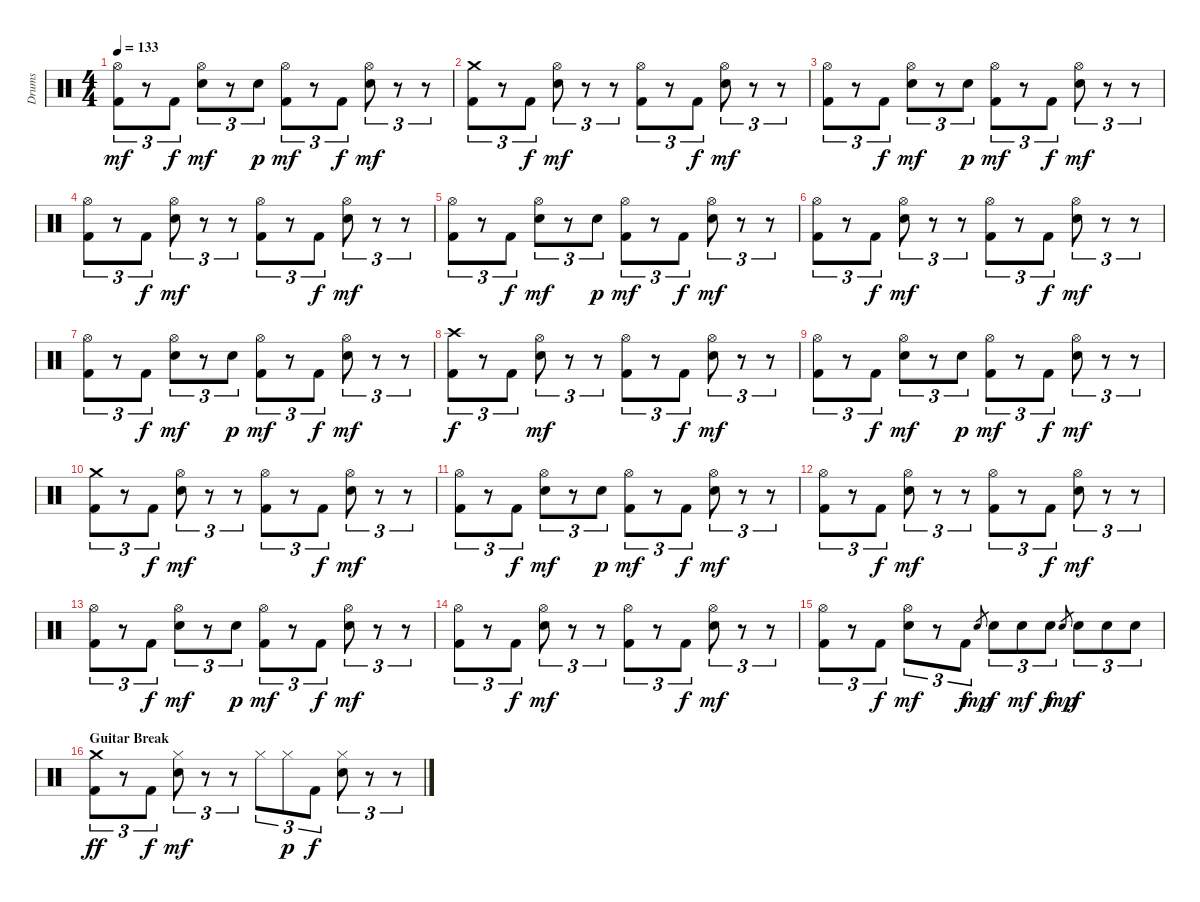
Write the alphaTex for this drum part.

\track ("Drums" "Drums") {instrument percussion}
\staff {score}
\articulation defaults
\ts (4 4)
\tempo 133
\clef neutral
\ks c
("Hi-Hat (open)" "Kick (hit) 2").8{tu (3 2) dy mf} r.8{tu (3 2)} "Kick (hit) 2".8{tu (3 2) dy f} ("Hi-Hat (open)" "Electric Snare (hit)").8{tu (3 2) dy mf} r.8{tu (3 2)} "Electric Snare (hit)".8{tu (3 2) dy p} ("Hi-Hat (open)" "Kick (hit) 2").8{tu (3 2) dy mf} r.8{tu (3 2)} "Kick (hit) 2".8{tu (3 2) dy f} ("Hi-Hat (open)" "Electric Snare (hit)").8{tu (3 2) dy mf} r.8{tu (3 2)} r.8{tu (3 2)} |
("Crash medium (hit)" "Kick (hit) 2").8{tu (3 2)} r.8{tu (3 2)} "Kick (hit) 2".8{tu (3 2) dy f} ("Hi-Hat (open)" "Electric Snare (hit)").8{tu (3 2) dy mf} r.8{tu (3 2)} r.8{tu (3 2)} ("Hi-Hat (open)" "Kick (hit) 2").8{tu (3 2)} r.8{tu (3 2)} "Kick (hit) 2".8{tu (3 2) dy f} ("Hi-Hat (open)" "Electric Snare (hit)").8{tu (3 2) dy mf} r.8{tu (3 2)} r.8{tu (3 2)} |
("Hi-Hat (open)" "Kick (hit) 2").8{tu (3 2)} r.8{tu (3 2)} "Kick (hit) 2".8{tu (3 2) dy f} ("Hi-Hat (open)" "Electric Snare (hit)").8{tu (3 2) dy mf} r.8{tu (3 2)} "Electric Snare (hit)".8{tu (3 2) dy p} ("Hi-Hat (open)" "Kick (hit) 2").8{tu (3 2) dy mf} r.8{tu (3 2)} "Kick (hit) 2".8{tu (3 2) dy f} ("Hi-Hat (open)" "Electric Snare (hit)").8{tu (3 2) dy mf} r.8{tu (3 2)} r.8{tu (3 2)} |
("Hi-Hat (open)" "Kick (hit) 2").8{tu (3 2)} r.8{tu (3 2)} "Kick (hit) 2".8{tu (3 2) dy f} ("Hi-Hat (open)" "Electric Snare (hit)").8{tu (3 2) dy mf} r.8{tu (3 2)} r.8{tu (3 2)} ("Hi-Hat (open)" "Kick (hit) 2").8{tu (3 2)} r.8{tu (3 2)} "Kick (hit) 2".8{tu (3 2) dy f} ("Hi-Hat (open)" "Electric Snare (hit)").8{tu (3 2) dy mf} r.8{tu (3 2)} r.8{tu (3 2)} |
("Hi-Hat (open)" "Kick (hit) 2").8{tu (3 2)} r.8{tu (3 2)} "Kick (hit) 2".8{tu (3 2) dy f} ("Hi-Hat (open)" "Electric Snare (hit)").8{tu (3 2) dy mf} r.8{tu (3 2)} "Electric Snare (hit)".8{tu (3 2) dy p} ("Hi-Hat (open)" "Kick (hit) 2").8{tu (3 2) dy mf} r.8{tu (3 2)} "Kick (hit) 2".8{tu (3 2) dy f} ("Hi-Hat (open)" "Electric Snare (hit)").8{tu (3 2) dy mf} r.8{tu (3 2)} r.8{tu (3 2)} |
("Hi-Hat (open)" "Kick (hit) 2").8{tu (3 2)} r.8{tu (3 2)} "Kick (hit) 2".8{tu (3 2) dy f} ("Hi-Hat (open)" "Electric Snare (hit)").8{tu (3 2) dy mf} r.8{tu (3 2)} r.8{tu (3 2)} ("Hi-Hat (open)" "Kick (hit) 2").8{tu (3 2)} r.8{tu (3 2)} "Kick (hit) 2".8{tu (3 2) dy f} ("Hi-Hat (open)" "Electric Snare (hit)").8{tu (3 2) dy mf} r.8{tu (3 2)} r.8{tu (3 2)} |
("Hi-Hat (open)" "Kick (hit) 2").8{tu (3 2)} r.8{tu (3 2)} "Kick (hit) 2".8{tu (3 2) dy f} ("Hi-Hat (open)" "Electric Snare (hit)").8{tu (3 2) dy mf} r.8{tu (3 2)} "Electric Snare (hit)".8{tu (3 2) dy p} ("Hi-Hat (open)" "Kick (hit) 2").8{tu (3 2) dy mf} r.8{tu (3 2)} "Kick (hit) 2".8{tu (3 2) dy f} ("Hi-Hat (open)" "Electric Snare (hit)").8{tu (3 2) dy mf} r.8{tu (3 2)} r.8{tu (3 2)} |
("Crash high (hit)" "Kick (hit) 2").8{tu (3 2) dy f} r.8{tu (3 2)} "Kick (hit) 2".8{tu (3 2)} ("Hi-Hat (open)" "Electric Snare (hit)").8{tu (3 2) dy mf} r.8{tu (3 2)} r.8{tu (3 2)} ("Hi-Hat (open)" "Kick (hit) 2").8{tu (3 2)} r.8{tu (3 2)} "Kick (hit) 2".8{tu (3 2) dy f} ("Hi-Hat (open)" "Electric Snare (hit)").8{tu (3 2) dy mf} r.8{tu (3 2)} r.8{tu (3 2)} |
("Hi-Hat (open)" "Kick (hit) 2").8{tu (3 2)} r.8{tu (3 2)} "Kick (hit) 2".8{tu (3 2) dy f} ("Hi-Hat (open)" "Electric Snare (hit)").8{tu (3 2) dy mf} r.8{tu (3 2)} "Electric Snare (hit)".8{tu (3 2) dy p} ("Hi-Hat (open)" "Kick (hit) 2").8{tu (3 2) dy mf} r.8{tu (3 2)} "Kick (hit) 2".8{tu (3 2) dy f} ("Hi-Hat (open)" "Electric Snare (hit)").8{tu (3 2) dy mf} r.8{tu (3 2)} r.8{tu (3 2)} |
("Crash medium (hit)" "Kick (hit) 2").8{tu (3 2)} r.8{tu (3 2)} "Kick (hit) 2".8{tu (3 2) dy f} ("Hi-Hat (open)" "Electric Snare (hit)").8{tu (3 2) dy mf} r.8{tu (3 2)} r.8{tu (3 2)} ("Hi-Hat (open)" "Kick (hit) 2").8{tu (3 2)} r.8{tu (3 2)} "Kick (hit) 2".8{tu (3 2) dy f} ("Hi-Hat (open)" "Electric Snare (hit)").8{tu (3 2) dy mf} r.8{tu (3 2)} r.8{tu (3 2)} |
("Hi-Hat (open)" "Kick (hit) 2").8{tu (3 2)} r.8{tu (3 2)} "Kick (hit) 2".8{tu (3 2) dy f} ("Hi-Hat (open)" "Electric Snare (hit)").8{tu (3 2) dy mf} r.8{tu (3 2)} "Electric Snare (hit)".8{tu (3 2) dy p} ("Hi-Hat (open)" "Kick (hit) 2").8{tu (3 2) dy mf} r.8{tu (3 2)} "Kick (hit) 2".8{tu (3 2) dy f} ("Hi-Hat (open)" "Electric Snare (hit)").8{tu (3 2) dy mf} r.8{tu (3 2)} r.8{tu (3 2)} |
("Hi-Hat (open)" "Kick (hit) 2").8{tu (3 2)} r.8{tu (3 2)} "Kick (hit) 2".8{tu (3 2) dy f} ("Hi-Hat (open)" "Electric Snare (hit)").8{tu (3 2) dy mf} r.8{tu (3 2)} r.8{tu (3 2)} ("Hi-Hat (open)" "Kick (hit) 2").8{tu (3 2)} r.8{tu (3 2)} "Kick (hit) 2".8{tu (3 2) dy f} ("Hi-Hat (open)" "Electric Snare (hit)").8{tu (3 2) dy mf} r.8{tu (3 2)} r.8{tu (3 2)} |
("Hi-Hat (open)" "Kick (hit) 2").8{tu (3 2)} r.8{tu (3 2)} "Kick (hit) 2".8{tu (3 2) dy f} ("Hi-Hat (open)" "Electric Snare (hit)").8{tu (3 2) dy mf} r.8{tu (3 2)} "Electric Snare (hit)".8{tu (3 2) dy p} ("Hi-Hat (open)" "Kick (hit) 2").8{tu (3 2) dy mf} r.8{tu (3 2)} "Kick (hit) 2".8{tu (3 2) dy f} ("Hi-Hat (open)" "Electric Snare (hit)").8{tu (3 2) dy mf} r.8{tu (3 2)} r.8{tu (3 2)} |
("Hi-Hat (open)" "Kick (hit) 2").8{tu (3 2)} r.8{tu (3 2)} "Kick (hit) 2".8{tu (3 2) dy f} ("Hi-Hat (open)" "Electric Snare (hit)").8{tu (3 2) dy mf} r.8{tu (3 2)} r.8{tu (3 2)} ("Hi-Hat (open)" "Kick (hit) 2").8{tu (3 2)} r.8{tu (3 2)} "Kick (hit) 2".8{tu (3 2) dy f} ("Hi-Hat (open)" "Electric Snare (hit)").8{tu (3 2) dy mf} r.8{tu (3 2)} r.8{tu (3 2)} |
("Hi-Hat (open)" "Kick (hit) 2").8{tu (3 2)} r.8{tu (3 2)} "Kick (hit) 2".8{tu (3 2) dy f} ("Hi-Hat (open)" "Electric Snare (hit)").8{tu (3 2) dy mf} r.8{tu (3 2)} "Kick (hit) 2".8{tu (3 2) dy f} "Electric Snare (hit)".8{gr dy mp} "Electric Snare (hit)".8{tu (3 2) dy f} "Electric Snare (hit)".8{tu (3 2) dy mf} "Electric Snare (hit)".8{tu (3 2) dy f} "Electric Snare (hit)".8{gr dy mp} "Electric Snare (hit)".8{tu (3 2) dy f} "Electric Snare (hit)".8{tu (3 2)} "Electric Snare (hit)".8{tu (3 2)} |
\section ("" "Guitar Break")
("Crash medium (hit)" "Kick (hit) 2").8{tu (3 2) dy ff} r.8{tu (3 2)} "Kick (hit) 2".8{tu (3 2) dy f} ("Hi-Hat (closed)" "Electric Snare (hit)").8{tu (3 2) dy mf} r.8{tu (3 2)} r.8{tu (3 2)} "Hi-Hat (closed)".8{tu (3 2)} "Hi-Hat (closed)".8{tu (3 2) dy p} "Kick (hit) 2".8{tu (3 2) dy f} ("Hi-Hat (closed)" "Electric Snare (hit)").8{tu (3 2)} r.8{tu (3 2)} r.8{tu (3 2)}
